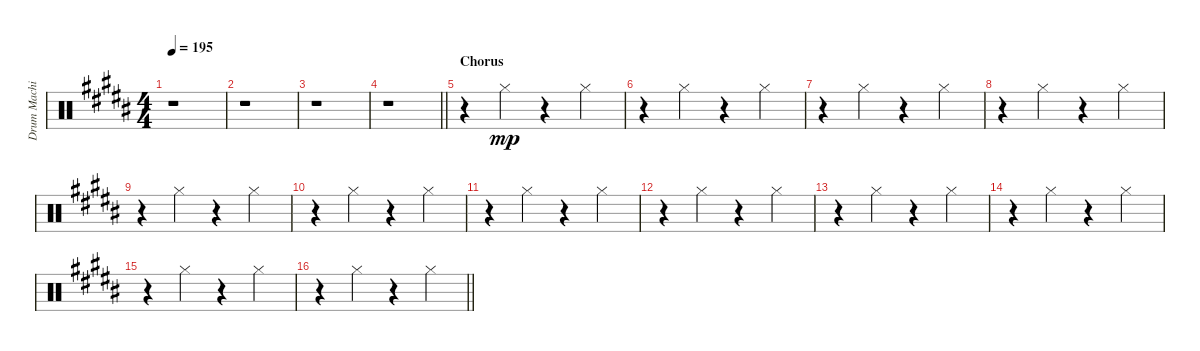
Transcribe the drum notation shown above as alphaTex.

\track ("Drum Machine" "Drum Machi") {instrument percussion}
\staff {score}
\articulation defaults
\ts (4 4)
\tempo 195
\clef neutral
\ks b
r.1{dy mp} |
r.1 |
r.1 |
\barLineRight lightlight
r.1 |
\section ("" "Chorus")
r.4 "Hi-Hat (closed)".4 r.4 "Hi-Hat (closed)".4 |
r.4 "Hi-Hat (closed)".4 r.4 "Hi-Hat (closed)".4 |
r.4 "Hi-Hat (closed)".4 r.4 "Hi-Hat (closed)".4 |
r.4 "Hi-Hat (closed)".4 r.4 "Hi-Hat (closed)".4 |
r.4 "Hi-Hat (closed)".4 r.4 "Hi-Hat (closed)".4 |
r.4 "Hi-Hat (closed)".4 r.4 "Hi-Hat (closed)".4 |
r.4 "Hi-Hat (closed)".4 r.4 "Hi-Hat (closed)".4 |
r.4 "Hi-Hat (closed)".4 r.4 "Hi-Hat (closed)".4 |
r.4 "Hi-Hat (closed)".4 r.4 "Hi-Hat (closed)".4 |
r.4 "Hi-Hat (closed)".4 r.4 "Hi-Hat (closed)".4 |
r.4 "Hi-Hat (closed)".4 r.4 "Hi-Hat (closed)".4 |
\barLineRight lightlight
r.4 "Hi-Hat (closed)".4 r.4 "Hi-Hat (closed)".4
